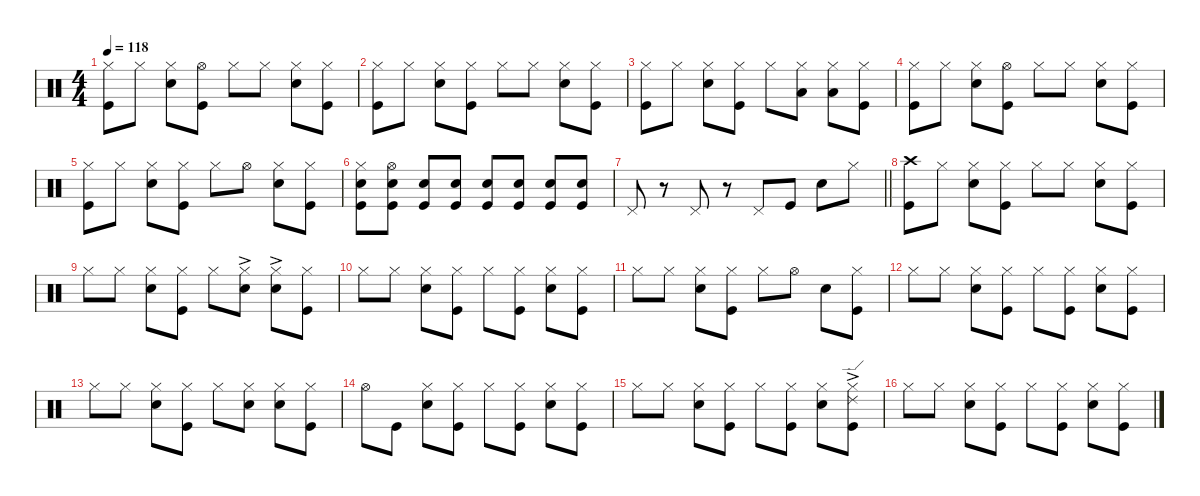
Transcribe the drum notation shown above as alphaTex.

\defaultSystemsLayout 4
\hideDynamics
\bracketExtendMode nobrackets
\singleTrackTrackNamePolicy hidden
\multiTrackTrackNamePolicy hidden
\firstSystemTrackNameMode fullname
\otherSystemsTrackNameOrientation horizontal
\track ("Drums" "drm.") {instrument percussion}
\staff {score}
\articulation defaults
\ts (4 4)
\tempo 118
\clef neutral
\ks c
("Hi-Hat (closed)" "Kick (hit)").8{dy f beam Down} "Hi-Hat (closed)".8{beam Down} ("Hi-Hat (closed)" "Snare (hit) 2").8{beam Down} ("Hi-Hat (open)" "Kick (hit)").8{beam Down} "Hi-Hat (closed)".8{beam Down} "Hi-Hat (closed)".8{beam Down} ("Hi-Hat (closed)" "Snare (hit) 2").8{beam Down} ("Hi-Hat (closed)" "Kick (hit)").8{beam Down} |
("Hi-Hat (closed)" "Kick (hit)").8{beam Down} "Hi-Hat (closed)".8{beam Down} ("Hi-Hat (closed)" "Snare (hit) 2").8{beam Down} ("Hi-Hat (closed)" "Kick (hit)").8{beam Down} "Hi-Hat (closed)".8{beam Down} "Hi-Hat (closed)".8{beam Down} ("Hi-Hat (closed)" "Snare (hit) 2").8{beam Down} ("Hi-Hat (closed)" "Kick (hit)").8{beam Down} |
("Hi-Hat (closed)" "Kick (hit)").8{beam Down} "Hi-Hat (closed)".8{beam Down} ("Hi-Hat (closed)" "Snare (hit) 2").8{beam Down} ("Hi-Hat (closed)" "Kick (hit)").8{beam Down} "Hi-Hat (closed)".8{beam Down} ("Hi-Hat (closed)" "Low Floor Tom (hit)").8{beam Down} ("Hi-Hat (closed)" "Low Floor Tom (hit)").8{beam Down} ("Hi-Hat (closed)" "Kick (hit)").8{beam Down} |
("Hi-Hat (closed)" "Kick (hit)").8{beam Down} "Hi-Hat (closed)".8{beam Down} ("Hi-Hat (closed)" "Snare (hit) 2").8{beam Down} ("Hi-Hat (open)" "Kick (hit)").8{beam Down} "Hi-Hat (closed)".8{beam Down} "Hi-Hat (closed)".8{beam Down} ("Hi-Hat (closed)" "Snare (hit) 2").8{beam Down} ("Hi-Hat (closed)" "Kick (hit)").8{beam Down} |
("Hi-Hat (closed)" "Kick (hit)").8{beam Down} "Hi-Hat (closed)".8{beam Down} ("Hi-Hat (closed)" "Snare (hit) 2").8{beam Down} ("Hi-Hat (closed)" "Kick (hit)").8{beam Down} "Hi-Hat (closed)".8{beam Down} "Hi-Hat (open)".8{beam Down} ("Hi-Hat (closed)" "Snare (hit) 2").8{beam Down} ("Hi-Hat (closed)" "Kick (hit)").8{beam Down} |
("Hi-Hat (closed)" "Snare (hit) 2" "Kick (hit)").8{beam Down} ("Hi-Hat (open)" "Snare (hit) 2" "Kick (hit)").8{beam Down} ("Snare (hit) 2" "Kick (hit)").8{dy mp beam Up} ("Snare (hit) 2" "Kick (hit)").8{beam Up} ("Snare (hit) 2" "Kick (hit)").8{dy mf beam Up} ("Snare (hit) 2" "Kick (hit)").8{beam Up} ("Snare (hit) 2" "Kick (hit)").8{dy f beam Up} ("Snare (hit) 2" "Kick (hit)").8{beam Up} |
\barLineRight lightlight "Pedal Hi-Hat (hit)".8{beam Up}
r.8{beam Up} "Pedal Hi-Hat (hit)".8{beam Up} r.8{beam Up} "Pedal Hi-Hat (hit)".8{beam Up} "Kick (hit)".8{beam Up} "Snare (hit) 2".8{beam Down} "Hi-Hat (closed)".8{beam Down} |
("Crash high (hit)" "Kick (hit)").8{beam Down} "Hi-Hat (closed)".8{beam Down} ("Hi-Hat (closed)" "Snare (hit) 2").8{beam Down} ("Hi-Hat (closed)" "Kick (hit)").8{beam Down} "Hi-Hat (closed)".8{beam Down} "Hi-Hat (closed)".8{beam Down} ("Hi-Hat (closed)" "Snare (hit) 2").8{beam Down} ("Hi-Hat (closed)" "Kick (hit)").8{beam Down} |
"Hi-Hat (closed)".8{beam Down} "Hi-Hat (closed)".8{beam Down} ("Hi-Hat (closed)" "Snare (hit) 2").8{beam Down} ("Hi-Hat (closed)" "Kick (hit)").8{beam Down} "Hi-Hat (closed)".8{beam Down} ("Hi-Hat (closed)" "Snare (hit) 2"{ac}).8{beam Down} ("Hi-Hat (closed)" "Snare (hit) 2"{ac}).8{beam Down} ("Hi-Hat (closed)" "Kick (hit)").8{beam Down} |
"Hi-Hat (closed)".8{beam Down} "Hi-Hat (closed)".8{beam Down} ("Hi-Hat (closed)" "Snare (hit) 2").8{beam Down} ("Hi-Hat (closed)" "Kick (hit)").8{beam Down} "Hi-Hat (closed)".8{beam Down} ("Hi-Hat (closed)" "Kick (hit)").8{beam Down} ("Hi-Hat (closed)" "Snare (hit) 2").8{beam Down} ("Hi-Hat (closed)" "Kick (hit)").8{beam Down} |
"Hi-Hat (closed)".8{beam Down} "Hi-Hat (closed)".8{beam Down} ("Hi-Hat (closed)" "Snare (hit) 2").8{beam Down} ("Hi-Hat (closed)" "Kick (hit)").8{beam Down} "Hi-Hat (closed)".8{beam Down} "Hi-Hat (open)".8{beam Down} "Snare (hit) 2".8{beam Down} ("Hi-Hat (closed)" "Kick (hit)").8{beam Down} |
"Hi-Hat (closed)".8{beam Down} "Hi-Hat (closed)".8{beam Down} ("Hi-Hat (closed)" "Snare (hit) 2").8{beam Down} ("Hi-Hat (closed)" "Kick (hit)").8{beam Down} "Hi-Hat (closed)".8{beam Down} ("Hi-Hat (closed)" "Kick (hit)").8{beam Down} ("Hi-Hat (closed)" "Snare (hit) 2").8{beam Down} ("Hi-Hat (closed)" "Kick (hit)").8{beam Down} |
"Hi-Hat (closed)".8{beam Down} "Hi-Hat (closed)".8{beam Down} ("Hi-Hat (closed)" "Snare (hit) 2").8{beam Down} ("Hi-Hat (closed)" "Kick (hit)").8{beam Down} "Hi-Hat (closed)".8{beam Down} ("Hi-Hat (closed)" "Snare (hit) 2").8{beam Down} ("Hi-Hat (closed)" "Snare (hit) 2").8{beam Down} ("Hi-Hat (closed)" "Kick (hit)").8{beam Down} |
"Hi-Hat (open)".8{beam Down} "Kick (hit)".8{beam Down} ("Hi-Hat (closed)" "Snare (hit) 2").8{beam Down} ("Hi-Hat (closed)" "Kick (hit)").8{beam Down} "Hi-Hat (closed)".8{beam Down} ("Hi-Hat (closed)" "Kick (hit)").8{beam Down} ("Hi-Hat (closed)" "Snare (hit) 2").8{beam Down} ("Hi-Hat (closed)" "Kick (hit)").8{beam Down} |
"Hi-Hat (closed)".8{beam Down} "Hi-Hat (closed)".8{beam Down} ("Hi-Hat (closed)" "Snare (hit) 2").8{beam Down} ("Hi-Hat (closed)" "Kick (hit)").8{beam Down} "Hi-Hat (closed)".8{beam Down} ("Hi-Hat (closed)" "Kick (hit)").8{beam Down} ("Hi-Hat (closed)" "Snare (hit) 2").8{beam Down} ("Hi-Hat (closed)" "Ride (edge) 2"{ac} "Kick (hit)").8{beam Down} |
"Hi-Hat (closed)".8{beam Down} "Hi-Hat (closed)".8{beam Down} ("Hi-Hat (closed)" "Snare (hit) 2").8{beam Down} ("Hi-Hat (closed)" "Kick (hit)").8{beam Down} "Hi-Hat (closed)".8{beam Down} ("Hi-Hat (closed)" "Kick (hit)").8{beam Down} ("Hi-Hat (closed)" "Snare (hit) 2").8{beam Down} ("Hi-Hat (closed)" "Kick (hit)").8{beam Down}
